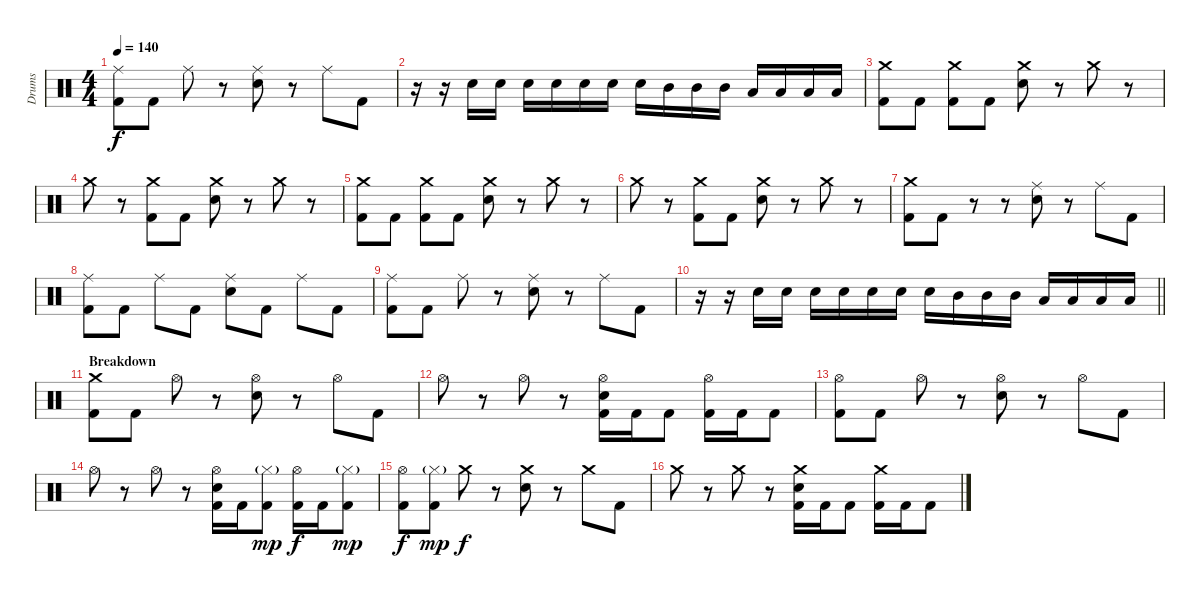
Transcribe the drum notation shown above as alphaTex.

\track ("Drums" "Drums") {instrument percussion}
\staff {score}
\articulation defaults
\ts (4 4)
\tempo 140
\clef neutral
\ks c
("Ride (middle)" "Kick (hit) 2").8{dy f} "Kick (hit) 2".8 "Ride (middle)".8 r.8 ("Ride (middle)" "Electric Snare (hit)").8 r.8 "Ride (middle)".8 "Kick (hit) 2".8 |
r.16 r.16 "Electric Snare (hit)".16 "Electric Snare (hit)".16 "Electric Snare (hit)".16 "Electric Snare (hit)".16 "Electric Snare (hit)".16 "Electric Snare (hit)".16 "Electric Snare (hit)".16 "Mid Tom (hit)".16 "Mid Tom (hit)".16 "Mid Tom (hit)".16 "Low Tom (hit)".16 "Low Tom (hit)".16 "Low Tom (hit)".16 "Low Tom (hit)".16 |
("Crash medium (hit)" "Kick (hit) 2").8 "Kick (hit) 2".8 ("Crash medium (hit)" "Kick (hit) 2").8 "Kick (hit) 2".8 ("Crash medium (hit)" "Electric Snare (hit)").8 r.8 "Crash medium (hit)".8 r.8 |
"Crash medium (hit)".8 r.8 ("Crash medium (hit)" "Kick (hit) 2").8 "Kick (hit) 2".8 ("Crash medium (hit)" "Electric Snare (hit)").8 r.8 "Crash medium (hit)".8 r.8 |
("Crash medium (hit)" "Kick (hit) 2").8 "Kick (hit) 2".8 ("Crash medium (hit)" "Kick (hit) 2").8 "Kick (hit) 2".8 ("Crash medium (hit)" "Electric Snare (hit)").8 r.8 "Crash medium (hit)".8 r.8 |
"Crash medium (hit)".8 r.8 ("Crash medium (hit)" "Kick (hit) 2").8 "Kick (hit) 2".8 ("Crash medium (hit)" "Electric Snare (hit)").8 r.8 "Crash medium (hit)".8 r.8 |
("Crash medium (hit)" "Kick (hit) 2").8 "Kick (hit) 2".8 r.8 r.8 ("Ride (middle)" "Electric Snare (hit)").8 r.8 "Ride (middle)".8 "Kick (hit) 2".8 |
("Ride (middle)" "Kick (hit) 2").8 "Kick (hit) 2".8 "Ride (middle)".8 "Kick (hit) 2".8 ("Ride (middle)" "Electric Snare (hit)").8 "Kick (hit) 2".8 "Ride (middle)".8 "Kick (hit) 2".8 |
("Ride (middle)" "Kick (hit) 2").8 "Kick (hit) 2".8 "Ride (middle)".8 r.8 ("Ride (middle)" "Electric Snare (hit)").8 r.8 "Ride (middle)".8 "Kick (hit) 2".8 |
\barLineRight lightlight
r.16 r.16 "Electric Snare (hit)".16 "Electric Snare (hit)".16 "Electric Snare (hit)".16 "Electric Snare (hit)".16 "Electric Snare (hit)".16 "Electric Snare (hit)".16 "Electric Snare (hit)".16 "Mid Tom (hit)".16 "Mid Tom (hit)".16 "Mid Tom (hit)".16 "Low Tom (hit)".16 "Low Tom (hit)".16 "Low Tom (hit)".16 "Low Tom (hit)".16 |
\section ("" "Breakdown")
("Crash medium (hit)" "Kick (hit) 2").8 "Kick (hit) 2".8 "Hi-Hat (open)".8 r.8 ("Hi-Hat (open)" "Electric Snare (hit)").8 r.8 "Hi-Hat (open)".8 "Kick (hit) 2".8 |
"Hi-Hat (open)".8 r.8 "Hi-Hat (open)".8 r.8 ("Hi-Hat (open)" "Electric Snare (hit)" "Kick (hit) 2").16 "Kick (hit) 2".16 "Kick (hit) 2".8 ("Hi-Hat (open)" "Kick (hit) 2").16 "Kick (hit) 2".16 "Kick (hit) 2".8 |
("Hi-Hat (open)" "Kick (hit) 2").8 "Kick (hit) 2".8 "Hi-Hat (open)".8 r.8 ("Hi-Hat (open)" "Electric Snare (hit)").8 r.8 "Hi-Hat (open)".8 "Kick (hit) 2".8 |
"Hi-Hat (open)".8 r.8 "Hi-Hat (open)".8 r.8 ("Hi-Hat (open)" "Electric Snare (hit)" "Kick (hit) 2").16 "Kick (hit) 2".16 ("Hi-Hat (closed)"{g} "Kick (hit) 2").8{dy mp} ("Hi-Hat (open)" "Kick (hit) 2").16{dy f} "Kick (hit) 2".16 ("Hi-Hat (closed)"{g} "Kick (hit) 2").8{dy mp} |
("Hi-Hat (open)" "Kick (hit) 2").8{dy f} ("Hi-Hat (closed)"{g} "Kick (hit) 2").8{dy mp} "Crash medium (hit)".8{dy f} r.8 ("Crash medium (hit)" "Electric Snare (hit)").8 r.8 "Crash medium (hit)".8 "Kick (hit) 2".8 |
"Crash medium (hit)".8 r.8 "Crash medium (hit)".8 r.8 ("Crash medium (hit)" "Electric Snare (hit)" "Kick (hit) 2").16 "Kick (hit) 2".16 "Kick (hit) 2".8 ("Crash medium (hit)" "Kick (hit) 2").16 "Kick (hit) 2".16 "Kick (hit) 2".8
